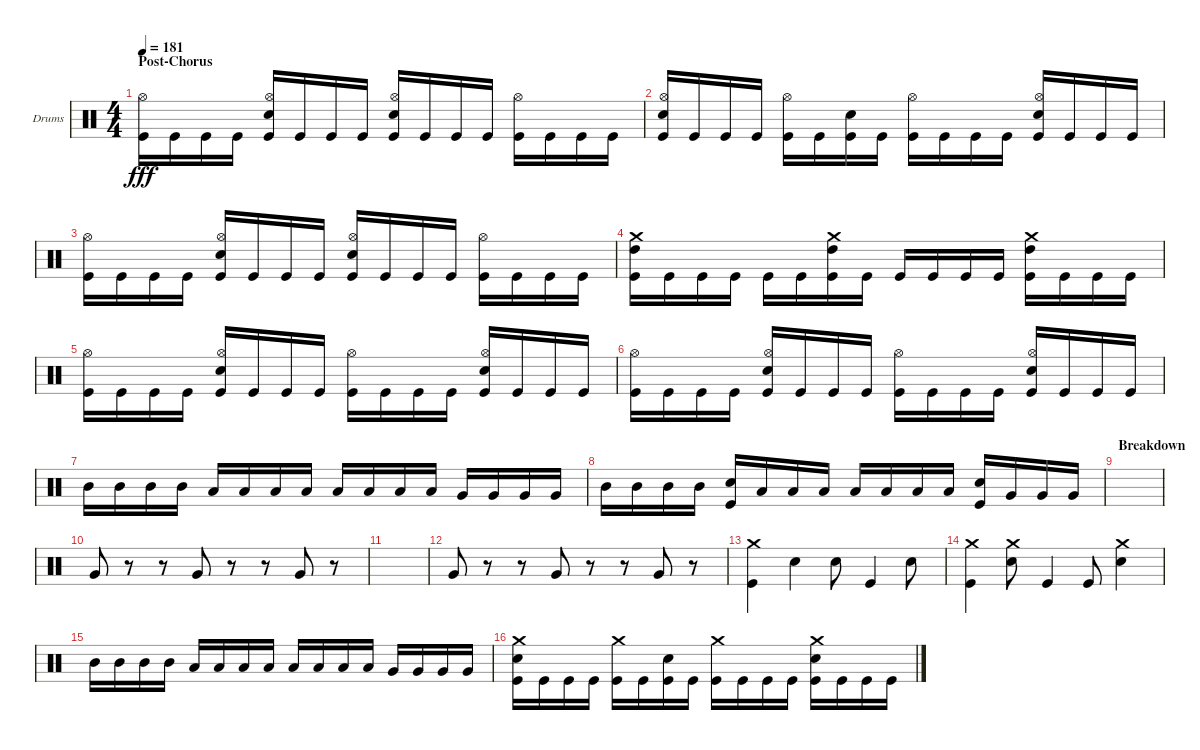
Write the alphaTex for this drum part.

\bracketExtendMode groupsimilarinstruments
\firstSystemTrackNameOrientation horizontal
\otherSystemsTrackNameOrientation horizontal
\track ("Drumkit" "Drums") {solo instrument percussion}
\staff {score}
\articulation defaults
\ts (4 4)
\section ("" "Post-Chorus")
\tempo 181
\clef neutral
\scale
0.333333
\ks c
("Kick (hit)" "Hi-Hat (open)").16{dy fff} "Kick (hit)".16 "Kick (hit)".16 "Kick (hit)".16 ("Kick (hit)" "Snare (hit) 2" "Hi-Hat (open)").16 "Kick (hit)".16 "Kick (hit)".16 "Kick (hit)".16 ("Kick (hit)" "Hi-Hat (open)" "Snare (hit) 2").16 "Kick (hit)".16 "Kick (hit)".16 "Kick (hit)".16 ("Kick (hit)" "Hi-Hat (open)").16 "Kick (hit)".16 "Kick (hit)".16 "Kick (hit)".16 |
\scale
0.333333 ("Kick (hit)" "Hi-Hat (open)" "Snare (hit) 2").16 "Kick (hit)".16 "Kick (hit)".16 "Kick (hit)".16 ("Kick (hit)" "Hi-Hat (open)").16 "Kick (hit)".16 ("Kick (hit)" "Snare (hit) 2").16 "Kick (hit)".16 ("Kick (hit)" "Hi-Hat (open)").16 "Kick (hit)".16 "Kick (hit)".16 "Kick (hit)".16 ("Kick (hit)" "Hi-Hat (open)" "Snare (hit) 2").16 "Kick (hit)".16 "Kick (hit)".16 "Kick (hit)".16 |
\scale
0.333333 ("Kick (hit)" "Hi-Hat (open)").16 "Kick (hit)".16 "Kick (hit)".16 "Kick (hit)".16 ("Kick (hit)" "Snare (hit) 2" "Hi-Hat (open)").16 "Kick (hit)".16 "Kick (hit)".16 "Kick (hit)".16 ("Kick (hit)" "Hi-Hat (open)" "Snare (hit) 2").16 "Kick (hit)".16 "Kick (hit)".16 "Kick (hit)".16 ("Kick (hit)" "Hi-Hat (open)").16 "Kick (hit)".16 "Kick (hit)".16 "Kick (hit)".16 |
\scale
0.333333 ("Kick (hit)" "High Tom (hit)" "Crash medium (hit)").16 "Kick (hit)".16 "Kick (hit)".16 "Kick (hit)".16 "Kick (hit)".16 "Kick (hit)".16 ("Kick (hit)" "High Tom (hit)" "Crash medium (hit)").16 "Kick (hit)".16 "Kick (hit)".16 "Kick (hit)".16 "Kick (hit)".16 "Kick (hit)".16 ("Kick (hit)" "High Tom (hit)" "Crash medium (hit)").16 "Kick (hit)".16 "Kick (hit)".16 "Kick (hit)".16 |
\scale
0.333333 ("Kick (hit)" "Hi-Hat (open)").16 "Kick (hit)".16 "Kick (hit)".16 "Kick (hit)".16 ("Kick (hit)" "Snare (hit) 2" "Hi-Hat (open)").16 "Kick (hit)".16 "Kick (hit)".16 "Kick (hit)".16 ("Kick (hit)" "Hi-Hat (open)").16 "Kick (hit)".16 "Kick (hit)".16 "Kick (hit)".16 ("Kick (hit)" "Hi-Hat (open)" "Snare (hit) 2").16 "Kick (hit)".16 "Kick (hit)".16 "Kick (hit)".16 |
\scale
0.333333 ("Kick (hit)" "Hi-Hat (open)").16 "Kick (hit)".16 "Kick (hit)".16 "Kick (hit)".16 ("Kick (hit)" "Snare (hit) 2" "Hi-Hat (open)").16 "Kick (hit)".16 "Kick (hit)".16 "Kick (hit)".16 ("Kick (hit)" "Hi-Hat (open)").16 "Kick (hit)".16 "Kick (hit)".16 "Kick (hit)".16 ("Kick (hit)" "Hi-Hat (open)" "Snare (hit) 2").16 "Kick (hit)".16 "Kick (hit)".16 "Kick (hit)".16 |
\scale
0.333333 "Mid Tom (hit)".16 "Mid Tom (hit)".16 "Mid Tom (hit)".16 "Mid Tom (hit)".16 "Low Tom (hit)".16 "Low Tom (hit)".16 "Low Tom (hit)".16 "Low Tom (hit)".16 "Low Tom (hit)".16 "Low Tom (hit)".16 "Low Tom (hit)".16 "Low Tom (hit)".16 "Very Low Tom (hit)".16 "Very Low Tom (hit)".16 "Very Low Tom (hit)".16 "Very Low Tom (hit)".16 |
\scale
0.333333 "Mid Tom (hit)".16 "Mid Tom (hit)".16 "Mid Tom (hit)".16 "Mid Tom (hit)".16 ("Kick (hit)" "Snare (hit) 2").16 "Low Tom (hit)".16 "Low Tom (hit)".16 "Low Tom (hit)".16 "Low Tom (hit)".16 "Low Tom (hit)".16 "Low Tom (hit)".16 "Low Tom (hit)".16 ("Kick (hit)" "Snare (hit) 2").16 "Very Low Tom (hit)".16 "Very Low Tom (hit)".16 "Very Low Tom (hit)".16 |
\section ("" "Breakdown")
\scale
0.333333 |
\scale
0.333333 "Very Low Tom (hit)".8 r.8 r.8 "Very Low Tom (hit)".8 r.8 r.8 "Very Low Tom (hit)".8 r.8 |
\scale
0.333333 |
\scale
0.333333 "Very Low Tom (hit)".8 r.8 r.8 "Very Low Tom (hit)".8 r.8 r.8 "Very Low Tom (hit)".8 r.8 |
\scale
0.333333 ("Kick (hit)" "Crash medium (hit)").4 "Snare (hit) 2".4 "Snare (hit) 2".8 "Kick (hit)".4 "Snare (hit) 2".8 |
\scale
0.333333 ("Kick (hit)" "Crash medium (hit)").4 ("Snare (hit) 2" "Crash medium (hit)").8 "Kick (hit)".4 "Kick (hit)".8 ("Snare (hit) 2" "Crash medium (hit)").4 |
\scale
0.333333 "Mid Tom (hit)".16 "Mid Tom (hit)".16 "Mid Tom (hit)".16 "Mid Tom (hit)".16 "Low Tom (hit)".16 "Low Tom (hit)".16 "Low Tom (hit)".16 "Low Tom (hit)".16 "Low Tom (hit)".16 "Low Tom (hit)".16 "Low Tom (hit)".16 "Low Tom (hit)".16 "Very Low Tom (hit)".16 "Very Low Tom (hit)".16 "Very Low Tom (hit)".16 "Very Low Tom (hit)".16 |
\scale
0.333333 ("Kick (hit)" "Snare (hit) 2" "Crash medium (hit)").16 "Kick (hit)".16 "Kick (hit)".16 "Kick (hit)".16 ("Kick (hit)" "Crash medium (hit)").16 "Kick (hit)".16 ("Kick (hit)" "Snare (hit) 2").16 "Kick (hit)".16 ("Kick (hit)" "Crash medium (hit)").16 "Kick (hit)".16 "Kick (hit)".16 "Kick (hit)".16 ("Kick (hit)" "Snare (hit) 2" "Crash medium (hit)").16 "Kick (hit)".16 "Kick (hit)".16 "Kick (hit)".16
